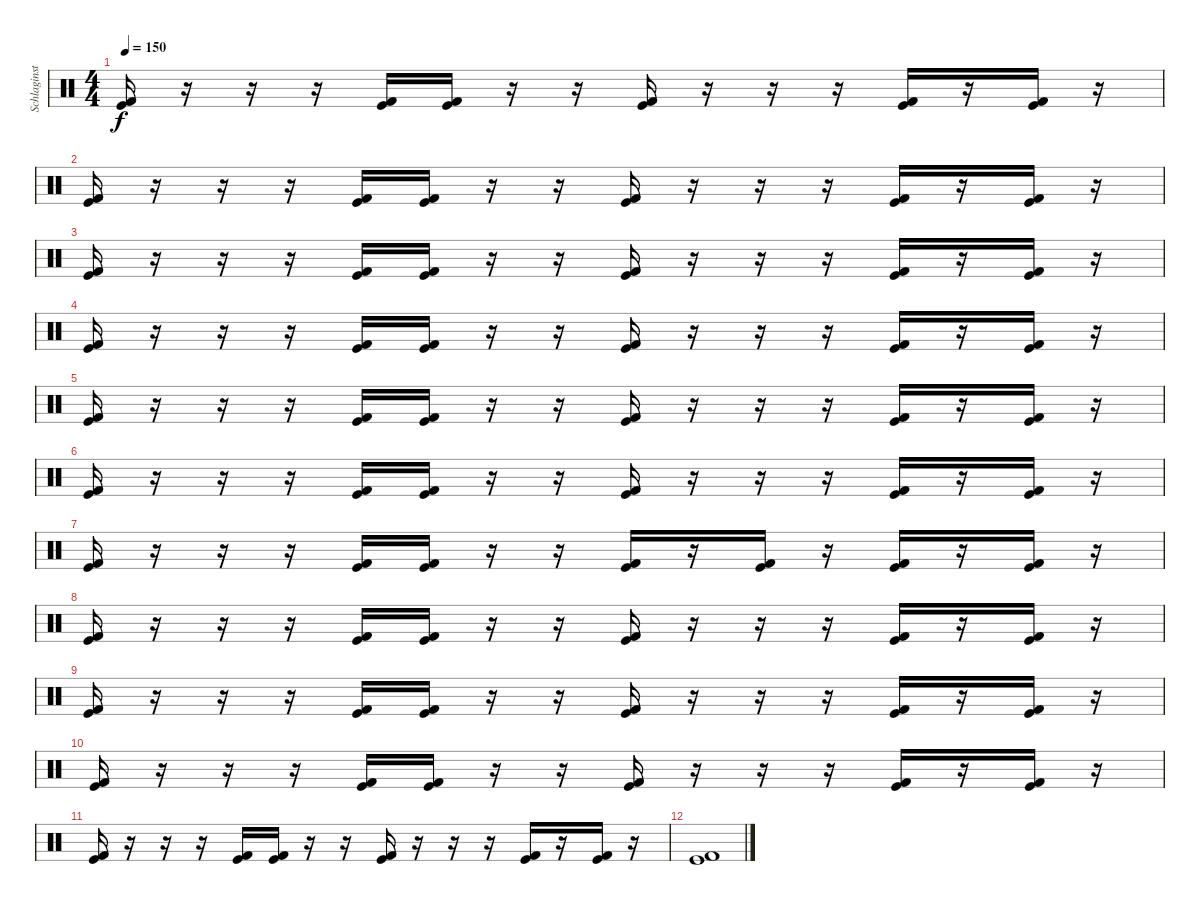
\track ("Schlaginstrumente - Auswahl" "Schlaginst") {instrument percussion}
\staff {score}
\articulation defaults
\ts (4 4)
\tempo 150
\clef neutral
\ks c
("Kick (hit)" "Kick (hit) 2").16{dy f} r.16 r.16 r.16 ("Kick (hit)" "Kick (hit) 2").16 ("Kick (hit)" "Kick (hit) 2").16 r.16 r.16 ("Kick (hit)" "Kick (hit) 2").16 r.16 r.16 r.16 ("Kick (hit)" "Kick (hit) 2").16 r.16 ("Kick (hit)" "Kick (hit) 2").16 r.16 |
("Kick (hit)" "Kick (hit) 2").16 r.16 r.16 r.16 ("Kick (hit)" "Kick (hit) 2").16 ("Kick (hit)" "Kick (hit) 2").16 r.16 r.16 ("Kick (hit)" "Kick (hit) 2").16 r.16 r.16 r.16 ("Kick (hit)" "Kick (hit) 2").16 r.16 ("Kick (hit)" "Kick (hit) 2").16 r.16 |
("Kick (hit)" "Kick (hit) 2").16 r.16 r.16 r.16 ("Kick (hit)" "Kick (hit) 2").16 ("Kick (hit)" "Kick (hit) 2").16 r.16 r.16 ("Kick (hit)" "Kick (hit) 2").16 r.16 r.16 r.16 ("Kick (hit)" "Kick (hit) 2").16 r.16 ("Kick (hit)" "Kick (hit) 2").16 r.16 |
("Kick (hit)" "Kick (hit) 2").16 r.16 r.16 r.16 ("Kick (hit)" "Kick (hit) 2").16 ("Kick (hit)" "Kick (hit) 2").16 r.16 r.16 ("Kick (hit)" "Kick (hit) 2").16 r.16 r.16 r.16 ("Kick (hit)" "Kick (hit) 2").16 r.16 ("Kick (hit)" "Kick (hit) 2").16 r.16 |
("Kick (hit)" "Kick (hit) 2").16 r.16 r.16 r.16 ("Kick (hit)" "Kick (hit) 2").16 ("Kick (hit)" "Kick (hit) 2").16 r.16 r.16 ("Kick (hit)" "Kick (hit) 2").16 r.16 r.16 r.16 ("Kick (hit)" "Kick (hit) 2").16 r.16 ("Kick (hit)" "Kick (hit) 2").16 r.16 |
("Kick (hit)" "Kick (hit) 2").16 r.16 r.16 r.16 ("Kick (hit)" "Kick (hit) 2").16 ("Kick (hit)" "Kick (hit) 2").16 r.16 r.16 ("Kick (hit)" "Kick (hit) 2").16 r.16 r.16 r.16 ("Kick (hit)" "Kick (hit) 2").16 r.16 ("Kick (hit)" "Kick (hit) 2").16 r.16 |
("Kick (hit)" "Kick (hit) 2").16 r.16 r.16 r.16 ("Kick (hit)" "Kick (hit) 2").16 ("Kick (hit)" "Kick (hit) 2").16 r.16 r.16 ("Kick (hit)" "Kick (hit) 2").16 r.16 ("Kick (hit)" "Kick (hit) 2").16 r.16 ("Kick (hit)" "Kick (hit) 2").16 r.16 ("Kick (hit)" "Kick (hit) 2").16 r.16 |
("Kick (hit)" "Kick (hit) 2").16 r.16 r.16 r.16 ("Kick (hit)" "Kick (hit) 2").16 ("Kick (hit)" "Kick (hit) 2").16 r.16 r.16 ("Kick (hit)" "Kick (hit) 2").16 r.16 r.16 r.16 ("Kick (hit)" "Kick (hit) 2").16 r.16 ("Kick (hit)" "Kick (hit) 2").16 r.16 |
("Kick (hit)" "Kick (hit) 2").16 r.16 r.16 r.16 ("Kick (hit)" "Kick (hit) 2").16 ("Kick (hit)" "Kick (hit) 2").16 r.16 r.16 ("Kick (hit)" "Kick (hit) 2").16 r.16 r.16 r.16 ("Kick (hit)" "Kick (hit) 2").16 r.16 ("Kick (hit)" "Kick (hit) 2").16 r.16 |
("Kick (hit)" "Kick (hit) 2").16 r.16 r.16 r.16 ("Kick (hit)" "Kick (hit) 2").16 ("Kick (hit)" "Kick (hit) 2").16 r.16 r.16 ("Kick (hit)" "Kick (hit) 2").16 r.16 r.16 r.16 ("Kick (hit)" "Kick (hit) 2").16 r.16 ("Kick (hit)" "Kick (hit) 2").16 r.16 |
("Kick (hit)" "Kick (hit) 2").16 r.16 r.16 r.16 ("Kick (hit)" "Kick (hit) 2").16 ("Kick (hit)" "Kick (hit) 2").16 r.16 r.16 ("Kick (hit)" "Kick (hit) 2").16 r.16 r.16 r.16 ("Kick (hit)" "Kick (hit) 2").16 r.16 ("Kick (hit)" "Kick (hit) 2").16 r.16 |
("Kick (hit)" "Kick (hit) 2").1
